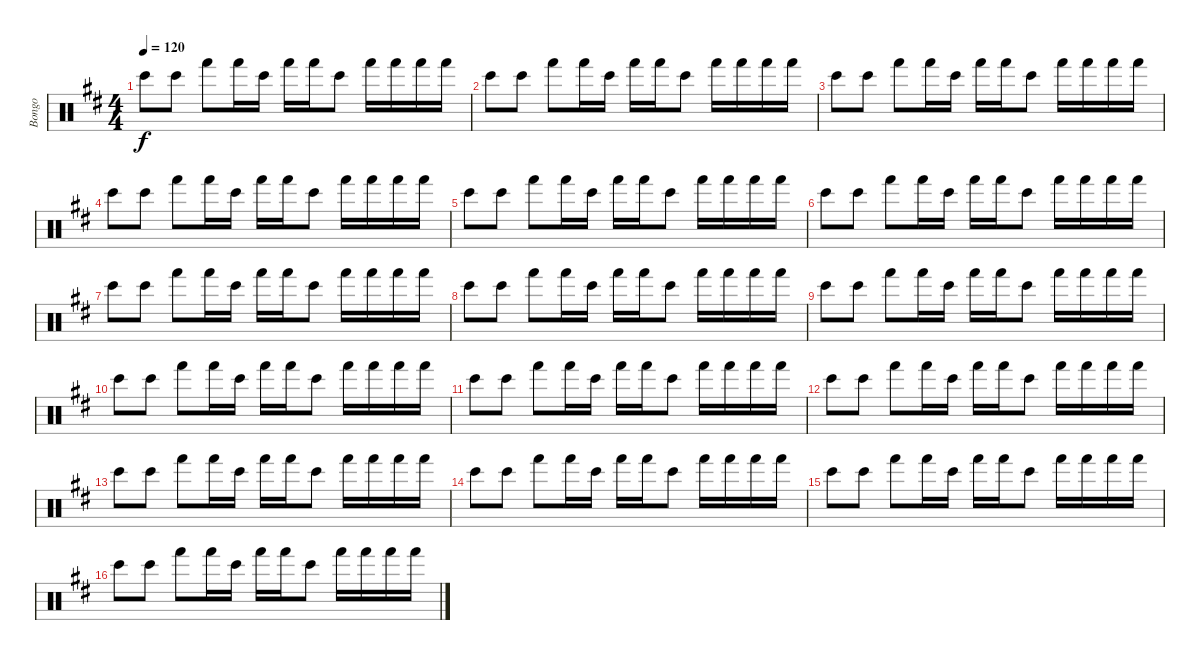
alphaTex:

\track ("Bongo" "Bongo") {instrument percussion}
\staff {score}
\articulation defaults
\ts (4 4)
\tempo 120
\clef neutral
\ks d "Bongo High (hit)".8{dy f} "Bongo High (hit)".8 "Hand (hit)".8 "Hand (hit)".16 "Bongo High (hit)".16 "Hand (hit)".16 "Hand (hit)".16 "Bongo High (hit)".8 "Hand (hit)".16 "Hand (hit)".16 "Hand (hit)".16 "Hand (hit)".16
|
"Bongo High (hit)".8 "Bongo High (hit)".8 "Hand (hit)".8 "Hand (hit)".16 "Bongo High (hit)".16 "Hand (hit)".16 "Hand (hit)".16 "Bongo High (hit)".8 "Hand (hit)".16 "Hand (hit)".16 "Hand (hit)".16 "Hand (hit)".16 |
"Bongo High (hit)".8 "Bongo High (hit)".8 "Hand (hit)".8 "Hand (hit)".16 "Bongo High (hit)".16 "Hand (hit)".16 "Hand (hit)".16 "Bongo High (hit)".8 "Hand (hit)".16 "Hand (hit)".16 "Hand (hit)".16 "Hand (hit)".16 |
"Bongo High (hit)".8 "Bongo High (hit)".8 "Hand (hit)".8 "Hand (hit)".16 "Bongo High (hit)".16 "Hand (hit)".16 "Hand (hit)".16 "Bongo High (hit)".8 "Hand (hit)".16 "Hand (hit)".16 "Hand (hit)".16 "Hand (hit)".16 |
"Bongo High (hit)".8 "Bongo High (hit)".8 "Hand (hit)".8 "Hand (hit)".16 "Bongo High (hit)".16 "Hand (hit)".16 "Hand (hit)".16 "Bongo High (hit)".8 "Hand (hit)".16 "Hand (hit)".16 "Hand (hit)".16 "Hand (hit)".16 |
"Bongo High (hit)".8 "Bongo High (hit)".8 "Hand (hit)".8 "Hand (hit)".16 "Bongo High (hit)".16 "Hand (hit)".16 "Hand (hit)".16 "Bongo High (hit)".8 "Hand (hit)".16 "Hand (hit)".16 "Hand (hit)".16 "Hand (hit)".16 |
"Bongo High (hit)".8 "Bongo High (hit)".8 "Hand (hit)".8 "Hand (hit)".16 "Bongo High (hit)".16 "Hand (hit)".16 "Hand (hit)".16 "Bongo High (hit)".8 "Hand (hit)".16 "Hand (hit)".16 "Hand (hit)".16 "Hand (hit)".16 |
"Bongo High (hit)".8 "Bongo High (hit)".8 "Hand (hit)".8 "Hand (hit)".16 "Bongo High (hit)".16 "Hand (hit)".16 "Hand (hit)".16 "Bongo High (hit)".8 "Hand (hit)".16 "Hand (hit)".16 "Hand (hit)".16 "Hand (hit)".16 |
"Bongo High (hit)".8 "Bongo High (hit)".8 "Hand (hit)".8 "Hand (hit)".16 "Bongo High (hit)".16 "Hand (hit)".16 "Hand (hit)".16 "Bongo High (hit)".8 "Hand (hit)".16 "Hand (hit)".16 "Hand (hit)".16 "Hand (hit)".16 |
"Bongo High (hit)".8 "Bongo High (hit)".8 "Hand (hit)".8 "Hand (hit)".16 "Bongo High (hit)".16 "Hand (hit)".16 "Hand (hit)".16 "Bongo High (hit)".8 "Hand (hit)".16 "Hand (hit)".16 "Hand (hit)".16 "Hand (hit)".16 |
"Bongo High (hit)".8 "Bongo High (hit)".8 "Hand (hit)".8 "Hand (hit)".16 "Bongo High (hit)".16 "Hand (hit)".16 "Hand (hit)".16 "Bongo High (hit)".8 "Hand (hit)".16 "Hand (hit)".16 "Hand (hit)".16 "Hand (hit)".16 |
"Bongo High (hit)".8 "Bongo High (hit)".8 "Hand (hit)".8 "Hand (hit)".16 "Bongo High (hit)".16 "Hand (hit)".16 "Hand (hit)".16 "Bongo High (hit)".8 "Hand (hit)".16 "Hand (hit)".16 "Hand (hit)".16 "Hand (hit)".16 |
"Bongo High (hit)".8 "Bongo High (hit)".8 "Hand (hit)".8 "Hand (hit)".16 "Bongo High (hit)".16 "Hand (hit)".16 "Hand (hit)".16 "Bongo High (hit)".8 "Hand (hit)".16 "Hand (hit)".16 "Hand (hit)".16 "Hand (hit)".16 |
"Bongo High (hit)".8 "Bongo High (hit)".8 "Hand (hit)".8 "Hand (hit)".16 "Bongo High (hit)".16 "Hand (hit)".16 "Hand (hit)".16 "Bongo High (hit)".8 "Hand (hit)".16 "Hand (hit)".16 "Hand (hit)".16 "Hand (hit)".16 |
"Bongo High (hit)".8 "Bongo High (hit)".8 "Hand (hit)".8 "Hand (hit)".16 "Bongo High (hit)".16 "Hand (hit)".16 "Hand (hit)".16 "Bongo High (hit)".8 "Hand (hit)".16 "Hand (hit)".16 "Hand (hit)".16 "Hand (hit)".16 |
"Bongo High (hit)".8 "Bongo High (hit)".8 "Hand (hit)".8 "Hand (hit)".16 "Bongo High (hit)".16 "Hand (hit)".16 "Hand (hit)".16 "Bongo High (hit)".8 "Hand (hit)".16 "Hand (hit)".16 "Hand (hit)".16 "Hand (hit)".16
